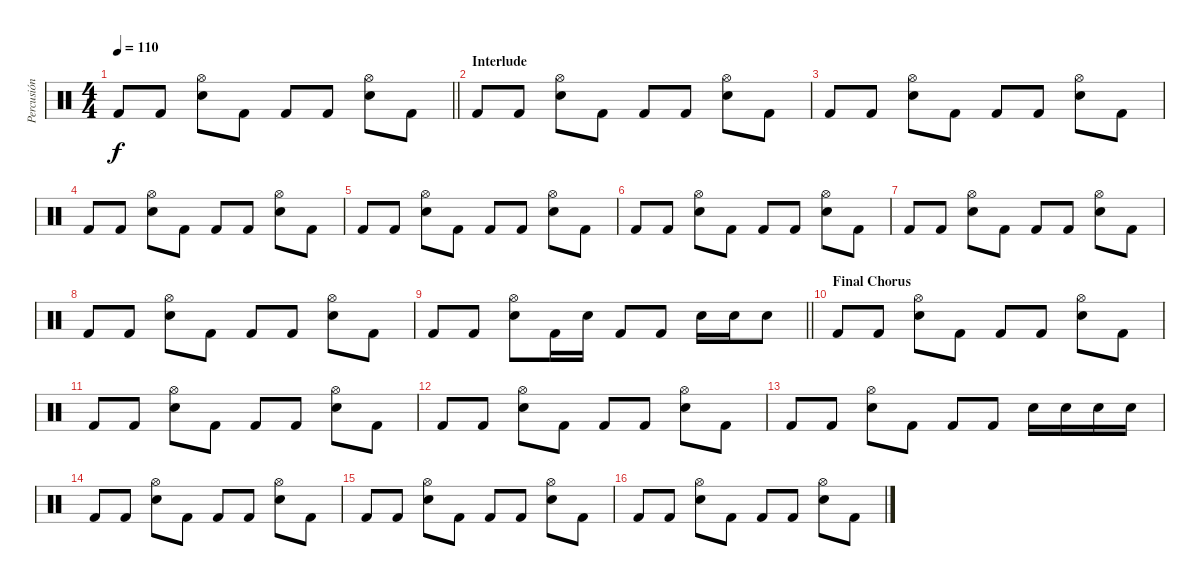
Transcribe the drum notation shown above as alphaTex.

\track ("Percusión" "Percusión") {instrument percussion}
\staff {score}
\articulation defaults
\ts (4 4)
\tempo 110
\clef neutral
\barLineRight lightlight
\ks c "Kick (hit) 2".8{dy f} "Kick (hit) 2".8
("Hi-Hat (open)" "Snare (hit) 2").8 "Kick (hit) 2".8 "Kick (hit) 2".8 "Kick (hit) 2".8 ("Hi-Hat (open)" "Snare (hit) 2").8 "Kick (hit) 2".8 |
\section ("" "Interlude")
"Kick (hit) 2".8 "Kick (hit) 2".8 ("Hi-Hat (open)" "Snare (hit) 2").8 "Kick (hit) 2".8 "Kick (hit) 2".8 "Kick (hit) 2".8 ("Hi-Hat (open)" "Snare (hit) 2").8 "Kick (hit) 2".8 |
"Kick (hit) 2".8 "Kick (hit) 2".8 ("Hi-Hat (open)" "Snare (hit) 2").8 "Kick (hit) 2".8 "Kick (hit) 2".8 "Kick (hit) 2".8 ("Hi-Hat (open)" "Snare (hit) 2").8 "Kick (hit) 2".8 |
"Kick (hit) 2".8 "Kick (hit) 2".8 ("Hi-Hat (open)" "Snare (hit) 2").8 "Kick (hit) 2".8 "Kick (hit) 2".8 "Kick (hit) 2".8 ("Hi-Hat (open)" "Snare (hit) 2").8 "Kick (hit) 2".8 |
"Kick (hit) 2".8 "Kick (hit) 2".8 ("Hi-Hat (open)" "Snare (hit) 2").8 "Kick (hit) 2".8 "Kick (hit) 2".8 "Kick (hit) 2".8 ("Hi-Hat (open)" "Snare (hit) 2").8 "Kick (hit) 2".8 |
"Kick (hit) 2".8 "Kick (hit) 2".8 ("Hi-Hat (open)" "Snare (hit) 2").8 "Kick (hit) 2".8 "Kick (hit) 2".8 "Kick (hit) 2".8 ("Hi-Hat (open)" "Snare (hit) 2").8 "Kick (hit) 2".8 |
"Kick (hit) 2".8 "Kick (hit) 2".8 ("Hi-Hat (open)" "Snare (hit) 2").8 "Kick (hit) 2".8 "Kick (hit) 2".8 "Kick (hit) 2".8 ("Hi-Hat (open)" "Snare (hit) 2").8 "Kick (hit) 2".8 |
"Kick (hit) 2".8 "Kick (hit) 2".8 ("Hi-Hat (open)" "Snare (hit) 2").8 "Kick (hit) 2".8 "Kick (hit) 2".8 "Kick (hit) 2".8 ("Hi-Hat (open)" "Snare (hit) 2").8 "Kick (hit) 2".8 |
\barLineRight lightlight "Kick (hit) 2".8 "Kick (hit) 2".8
("Hi-Hat (open)" "Snare (hit) 2").8 "Kick (hit) 2".16 "Snare (hit) 2".16 "Kick (hit) 2".8 "Kick (hit) 2".8 "Snare (hit) 2".16 "Snare (hit) 2".16 "Snare (hit) 2".8 |
\section ("" "Final Chorus")
"Kick (hit) 2".8 "Kick (hit) 2".8 ("Hi-Hat (open)" "Snare (hit) 2").8 "Kick (hit) 2".8 "Kick (hit) 2".8 "Kick (hit) 2".8 ("Hi-Hat (open)" "Snare (hit) 2").8 "Kick (hit) 2".8 |
"Kick (hit) 2".8 "Kick (hit) 2".8 ("Hi-Hat (open)" "Snare (hit) 2").8 "Kick (hit) 2".8 "Kick (hit) 2".8 "Kick (hit) 2".8 ("Hi-Hat (open)" "Snare (hit) 2").8 "Kick (hit) 2".8 |
"Kick (hit) 2".8 "Kick (hit) 2".8 ("Hi-Hat (open)" "Snare (hit) 2").8 "Kick (hit) 2".8 "Kick (hit) 2".8 "Kick (hit) 2".8 ("Hi-Hat (open)" "Snare (hit) 2").8 "Kick (hit) 2".8 |
"Kick (hit) 2".8 "Kick (hit) 2".8 ("Hi-Hat (open)" "Snare (hit) 2").8 "Kick (hit) 2".8 "Kick (hit) 2".8 "Kick (hit) 2".8 "Snare (hit) 2".16 "Snare (hit) 2".16 "Snare (hit) 2".16 "Snare (hit) 2".16 |
"Kick (hit) 2".8 "Kick (hit) 2".8 ("Hi-Hat (open)" "Snare (hit) 2").8 "Kick (hit) 2".8 "Kick (hit) 2".8 "Kick (hit) 2".8 ("Hi-Hat (open)" "Snare (hit) 2").8 "Kick (hit) 2".8 |
"Kick (hit) 2".8 "Kick (hit) 2".8 ("Hi-Hat (open)" "Snare (hit) 2").8 "Kick (hit) 2".8 "Kick (hit) 2".8 "Kick (hit) 2".8 ("Hi-Hat (open)" "Snare (hit) 2").8 "Kick (hit) 2".8 |
"Kick (hit) 2".8 "Kick (hit) 2".8 ("Hi-Hat (open)" "Snare (hit) 2").8 "Kick (hit) 2".8 "Kick (hit) 2".8 "Kick (hit) 2".8 ("Hi-Hat (open)" "Snare (hit) 2").8 "Kick (hit) 2".8
